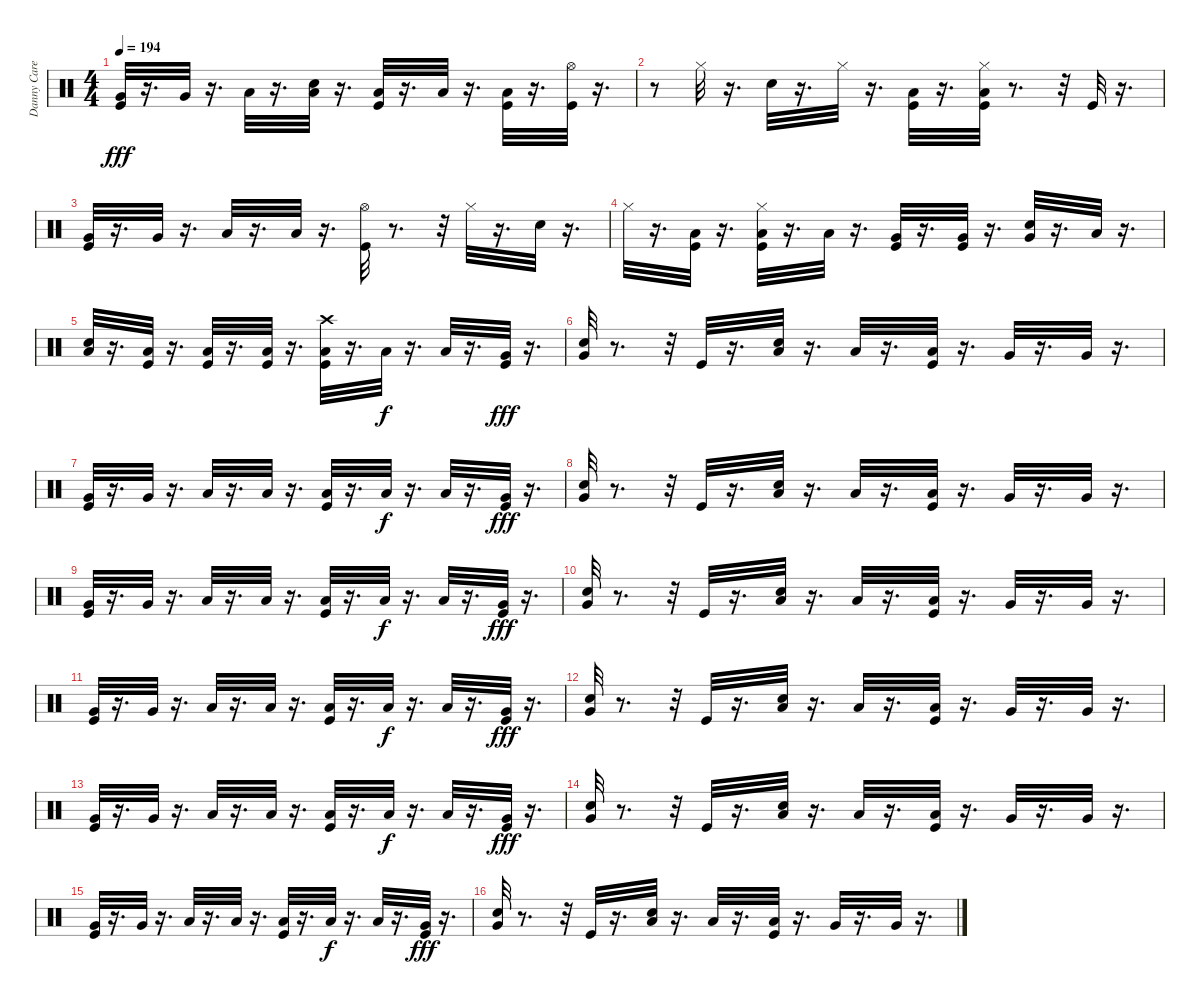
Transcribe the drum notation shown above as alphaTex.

\track ("Danny Carey" "Danny Care") {instrument percussion}
\staff {score}
\articulation defaults
\ts (4 4)
\tempo 194
\clef neutral
\ks c
("Very Low Tom (hit)" "Kick (hit)").32{dy fff} r.16{d} "Very Low Tom (hit)".32 r.16{d} "Low Floor Tom (hit)".32 r.16{d} ("Snare (hit) 2" "Low Floor Tom (hit)").32 r.16{d} ("Kick (hit)" "Low Floor Tom (hit)").32 r.16{d} "Low Floor Tom (hit)".32 r.16{d} ("Kick (hit)" "Low Floor Tom (hit)").32 r.16{d} ("Hi-Hat (open)" "Kick (hit)").32 r.16{d} |
r.8 "Hi-Hat (closed)".32 r.16{d} "Snare (hit) 2".32 r.16{d} "Hi-Hat (closed)".32 r.16{d} ("Low Floor Tom (hit)" "Kick (hit)").32 r.16{d} ("Low Floor Tom (hit)" "Hi-Hat (closed)" "Kick (hit)").32 r.8{d} r.32 "Kick (hit)".32 r.16{d} |
("Very Low Tom (hit)" "Kick (hit)").32 r.16{d} "Very Low Tom (hit)".32 r.16{d} "Low Floor Tom (hit)".32 r.16{d} "Low Floor Tom (hit)".32 r.16{d} ("Hi-Hat (open)" "Kick (hit)").32 r.8{d} r.32 "Hi-Hat (closed)".32 r.16{d} "Snare (hit) 2".32 r.16{d} |
"Hi-Hat (closed)".32 r.16{d} ("Kick (hit)" "Low Floor Tom (hit)").32 r.16{d} ("Kick (hit)" "Low Floor Tom (hit)" "Hi-Hat (closed)").32 r.16{d} "Low Floor Tom (hit)".32 r.16{d} ("Very Low Tom (hit)" "Kick (hit)").32 r.16{d} ("Very Low Tom (hit)" "Kick (hit)").32 r.16{d} ("Snare (hit) 2" "Very Low Tom (hit)").32 r.16{d} "Low Floor Tom (hit)".32 r.16{d} |
("Snare (hit) 2" "Low Floor Tom (hit)").32 r.16{d} ("Kick (hit)" "Low Floor Tom (hit)").32 r.16{d} ("Kick (hit)" "Low Floor Tom (hit)").32 r.16{d} ("Kick (hit)" "Low Floor Tom (hit)").32 r.16{d} ("Crash high (hit)" "Low Floor Tom (hit)" "Kick (hit)").32 r.16{d} "Low Floor Tom (hit)".32{dy f} r.16{d} "Low Floor Tom (hit)".32 r.16{d} ("Very Low Tom (hit)" "Kick (hit)").32{dy fff} r.16{d} |
("Very Low Tom (hit)" "Snare (hit) 2").32 r.8{d} r.32 "Kick (hit)".32 r.16{d} ("Low Tom (hit)" "Snare (hit) 2").32 r.16{d} "Low Tom (hit)".32 r.16{d} ("Low Tom (hit)" "Kick (hit)").32 r.16{d} "Very Low Tom (hit)".32 r.16{d} "Very Low Tom (hit)".32 r.16{d} |
("Very Low Tom (hit)" "Kick (hit)").32 r.16{d} "Very Low Tom (hit)".32 r.16{d} "Low Floor Tom (hit)".32 r.16{d} "Low Floor Tom (hit)".32 r.16{d} ("Low Floor Tom (hit)" "Kick (hit)").32 r.16{d} "Low Floor Tom (hit)".32{dy f} r.16{d} "Low Floor Tom (hit)".32 r.16{d} ("Very Low Tom (hit)" "Kick (hit)").32{dy fff} r.16{d} |
("Very Low Tom (hit)" "Snare (hit) 2").32 r.8{d} r.32 "Kick (hit)".32 r.16{d} ("Low Tom (hit)" "Snare (hit) 2").32 r.16{d} "Low Tom (hit)".32 r.16{d} ("Low Tom (hit)" "Kick (hit)").32 r.16{d} "Very Low Tom (hit)".32 r.16{d} "Very Low Tom (hit)".32 r.16{d} |
("Very Low Tom (hit)" "Kick (hit)").32 r.16{d} "Very Low Tom (hit)".32 r.16{d} "Low Floor Tom (hit)".32 r.16{d} "Low Floor Tom (hit)".32 r.16{d} ("Low Floor Tom (hit)" "Kick (hit)").32 r.16{d} "Low Floor Tom (hit)".32{dy f} r.16{d} "Low Floor Tom (hit)".32 r.16{d} ("Very Low Tom (hit)" "Kick (hit)").32{dy fff} r.16{d} |
("Very Low Tom (hit)" "Snare (hit) 2").32 r.8{d} r.32 "Kick (hit)".32 r.16{d} ("Low Tom (hit)" "Snare (hit) 2").32 r.16{d} "Low Tom (hit)".32 r.16{d} ("Low Tom (hit)" "Kick (hit)").32 r.16{d} "Very Low Tom (hit)".32 r.16{d} "Very Low Tom (hit)".32 r.16{d} |
("Very Low Tom (hit)" "Kick (hit)").32 r.16{d} "Very Low Tom (hit)".32 r.16{d} "Low Floor Tom (hit)".32 r.16{d} "Low Floor Tom (hit)".32 r.16{d} ("Low Floor Tom (hit)" "Kick (hit)").32 r.16{d} "Low Floor Tom (hit)".32{dy f} r.16{d} "Low Floor Tom (hit)".32 r.16{d} ("Very Low Tom (hit)" "Kick (hit)").32{dy fff} r.16{d} |
("Very Low Tom (hit)" "Snare (hit) 2").32 r.8{d} r.32 "Kick (hit)".32 r.16{d} ("Low Tom (hit)" "Snare (hit) 2").32 r.16{d} "Low Tom (hit)".32 r.16{d} ("Low Tom (hit)" "Kick (hit)").32 r.16{d} "Very Low Tom (hit)".32 r.16{d} "Very Low Tom (hit)".32 r.16{d} |
("Very Low Tom (hit)" "Kick (hit)").32 r.16{d} "Very Low Tom (hit)".32 r.16{d} "Low Floor Tom (hit)".32 r.16{d} "Low Floor Tom (hit)".32 r.16{d} ("Low Floor Tom (hit)" "Kick (hit)").32 r.16{d} "Low Floor Tom (hit)".32{dy f} r.16{d} "Low Floor Tom (hit)".32 r.16{d} ("Very Low Tom (hit)" "Kick (hit)").32{dy fff} r.16{d} |
("Very Low Tom (hit)" "Snare (hit) 2").32 r.8{d} r.32 "Kick (hit)".32 r.16{d} ("Low Tom (hit)" "Snare (hit) 2").32 r.16{d} "Low Tom (hit)".32 r.16{d} ("Low Tom (hit)" "Kick (hit)").32 r.16{d} "Very Low Tom (hit)".32 r.16{d} "Very Low Tom (hit)".32 r.16{d} |
("Very Low Tom (hit)" "Kick (hit)").32 r.16{d} "Very Low Tom (hit)".32 r.16{d} "Low Floor Tom (hit)".32 r.16{d} "Low Floor Tom (hit)".32 r.16{d} ("Low Floor Tom (hit)" "Kick (hit)").32 r.16{d} "Low Floor Tom (hit)".32{dy f} r.16{d} "Low Floor Tom (hit)".32 r.16{d} ("Very Low Tom (hit)" "Kick (hit)").32{dy fff} r.16{d} |
("Very Low Tom (hit)" "Snare (hit) 2").32 r.8{d} r.32 "Kick (hit)".32 r.16{d} ("Low Tom (hit)" "Snare (hit) 2").32 r.16{d} "Low Tom (hit)".32 r.16{d} ("Low Tom (hit)" "Kick (hit)").32 r.16{d} "Very Low Tom (hit)".32 r.16{d} "Very Low Tom (hit)".32 r.16{d}
